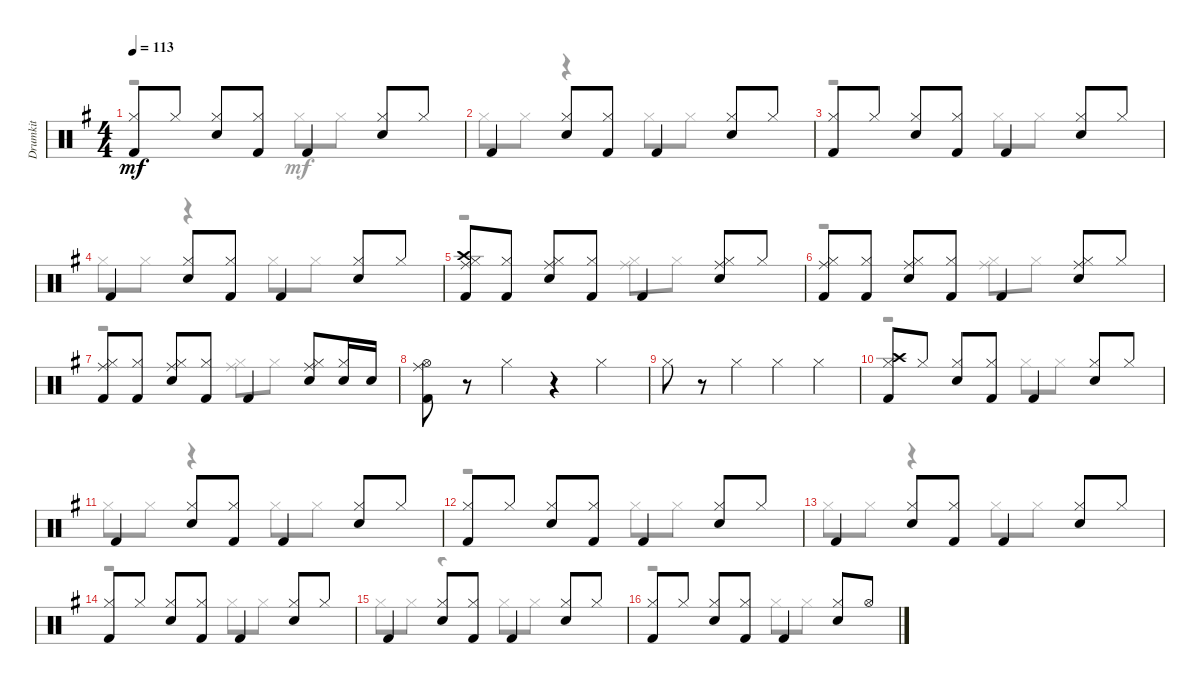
\track ("Drumkit" "Drumkit") {instrument percussion}
\staff {score}
\articulation defaults
\voice
\ts (4 4)
\tempo 113
\clef neutral
\ks eminor
("Hi-Hat (closed)" "Kick (hit) 2").8{dy mf} "Hi-Hat (closed)".8 ("Snare (hit) 2" "Hi-Hat (closed)").8 ("Kick (hit) 2" "Hi-Hat (closed)").8 "Kick (hit) 2".4 ("Snare (hit) 2" "Hi-Hat (closed)").8 "Hi-Hat (closed)".8 |
"Kick (hit) 2".4 ("Snare (hit) 2" "Hi-Hat (closed)").8 ("Kick (hit) 2" "Hi-Hat (closed)").8 "Kick (hit) 2".4 ("Snare (hit) 2" "Hi-Hat (closed)").8 "Hi-Hat (closed)".8 |
("Hi-Hat (closed)" "Kick (hit) 2").8 "Hi-Hat (closed)".8 ("Hi-Hat (closed)" "Snare (hit) 2").8 ("Hi-Hat (closed)" "Kick (hit) 2").8 "Kick (hit) 2".4 ("Snare (hit) 2" "Hi-Hat (closed)").8 "Hi-Hat (closed)".8 |
"Kick (hit) 2".4 ("Snare (hit) 2" "Hi-Hat (closed)").8 ("Kick (hit) 2" "Hi-Hat (closed)").8 "Kick (hit) 2".4 ("Hi-Hat (closed)" "Snare (hit) 2").8 "Hi-Hat (closed)".8 |
("Kick (hit) 2" "Ride (middle)" "Hi-Hat (closed)" "Crash high (hit)").8 ("Hi-Hat (closed)" "Kick (hit) 2").8 ("Ride (middle)" "Snare (hit) 2" "Hi-Hat (closed)").8 ("Kick (hit) 2" "Hi-Hat (closed)").8 "Kick (hit) 2".4 ("Hi-Hat (closed)" "Ride (middle)" "Snare (hit) 2").8 "Hi-Hat (closed)".8 |
("Kick (hit) 2" "Hi-Hat (closed)" "Ride (middle)").8 ("Kick (hit) 2" "Hi-Hat (closed)").8 ("Hi-Hat (closed)" "Snare (hit) 2" "Ride (middle)").8 ("Hi-Hat (closed)" "Kick (hit) 2").8 "Kick (hit) 2".4 ("Snare (hit) 2" "Hi-Hat (closed)" "Ride (middle)").8 "Hi-Hat (closed)".8 |
("Ride (middle)" "Hi-Hat (closed)" "Kick (hit) 2").8 ("Kick (hit) 2" "Hi-Hat (closed)").8 ("Snare (hit) 2" "Hi-Hat (closed)" "Ride (middle)").8 ("Kick (hit) 2" "Hi-Hat (closed)").8 "Kick (hit) 2".4 ("Snare (hit) 2" "Ride (middle)" "Hi-Hat (closed)").8 ("Snare (hit) 2" "Hi-Hat (closed)").16 "Snare (hit) 2".16 |
("Kick (hit) 2" "Hi-Hat (open)" "Ride (middle)").8 r.8 "Hi-Hat (closed)".4 r.4 "Hi-Hat (closed)".4 |
"Hi-Hat (closed)".8 r.8 "Hi-Hat (closed)".4 "Hi-Hat (closed)".4 "Hi-Hat (closed)".4 |
("Hi-Hat (closed)" "Kick (hit) 2" "Crash high (hit)").8 "Hi-Hat (closed)".8 ("Snare (hit) 2" "Hi-Hat (closed)").8 ("Kick (hit) 2" "Hi-Hat (closed)").8 "Kick (hit) 2".4 ("Snare (hit) 2" "Hi-Hat (closed)").8 "Hi-Hat (closed)".8 |
"Kick (hit) 2".4 ("Snare (hit) 2" "Hi-Hat (closed)").8 ("Kick (hit) 2" "Hi-Hat (closed)").8 "Kick (hit) 2".4 ("Snare (hit) 2" "Hi-Hat (closed)").8 "Hi-Hat (closed)".8 |
("Hi-Hat (closed)" "Kick (hit) 2").8 "Hi-Hat (closed)".8 ("Snare (hit) 2" "Hi-Hat (closed)").8 ("Kick (hit) 2" "Hi-Hat (closed)").8 "Kick (hit) 2".4 ("Snare (hit) 2" "Hi-Hat (closed)").8 "Hi-Hat (closed)".8 |
"Kick (hit) 2".4 ("Hi-Hat (closed)" "Snare (hit) 2").8 ("Kick (hit) 2" "Hi-Hat (closed)").8 "Kick (hit) 2".4 ("Hi-Hat (closed)" "Snare (hit) 2").8 "Hi-Hat (closed)".8 |
("Kick (hit) 2" "Hi-Hat (closed)").8 "Hi-Hat (closed)".8 ("Hi-Hat (closed)" "Snare (hit) 2").8 ("Kick (hit) 2" "Hi-Hat (closed)").8 "Kick (hit) 2".4 ("Snare (hit) 2" "Hi-Hat (closed)").8 "Hi-Hat (closed)".8 |
"Kick (hit) 2".4 ("Hi-Hat (closed)" "Snare (hit) 2").8 ("Hi-Hat (closed)" "Kick (hit) 2").8 "Kick (hit) 2".4 ("Hi-Hat (closed)" "Snare (hit) 2").8 "Hi-Hat (closed)".8 |
("Kick (hit) 2" "Hi-Hat (closed)").8 "Hi-Hat (closed)".8 ("Hi-Hat (closed)" "Snare (hit) 2").8 ("Kick (hit) 2" "Hi-Hat (closed)").8 "Kick (hit) 2".4 ("Snare (hit) 2" "Hi-Hat (closed)").8 "Hi-Hat (open)".8
\voice
\clef neutral
\ottava regular
\simile none
\ks eminor
r.2{dy mf} "Hi-Hat (closed)".8 "Hi-Hat (closed)".8 |
"Hi-Hat (closed)".8 "Hi-Hat (closed)".8 r.4 "Hi-Hat (closed)".8 "Hi-Hat (closed)".8 |
r.2 "Hi-Hat (closed)".8 "Hi-Hat (closed)".8 |
"Hi-Hat (closed)".8 "Hi-Hat (closed)".8 r.4 "Hi-Hat (closed)".8 "Hi-Hat (closed)".8 |
r.2 ("Hi-Hat (closed)" "Ride (middle)").8 "Hi-Hat (closed)".8 |
r.2 ("Hi-Hat (closed)" "Ride (middle)").8 "Hi-Hat (closed)".8 |
r.2 ("Hi-Hat (closed)" "Ride (middle)").8 "Hi-Hat (closed)".8 |
|
|
r.2 "Hi-Hat (closed)".8 "Hi-Hat (closed)".8 |
"Hi-Hat (closed)".8 "Hi-Hat (closed)".8 r.4 "Hi-Hat (closed)".8 "Hi-Hat (closed)".8 |
r.2 "Hi-Hat (closed)".8 "Hi-Hat (closed)".8 |
"Hi-Hat (closed)".8 "Hi-Hat (closed)".8 r.4 "Hi-Hat (closed)".8 "Hi-Hat (closed)".8 |
r.2 "Hi-Hat (closed)".8 "Hi-Hat (closed)".8 |
"Hi-Hat (closed)".8 "Hi-Hat (closed)".8 r.4 "Hi-Hat (closed)".8 "Hi-Hat (closed)".8 |
r.2 "Hi-Hat (closed)".8 "Hi-Hat (closed)".8
